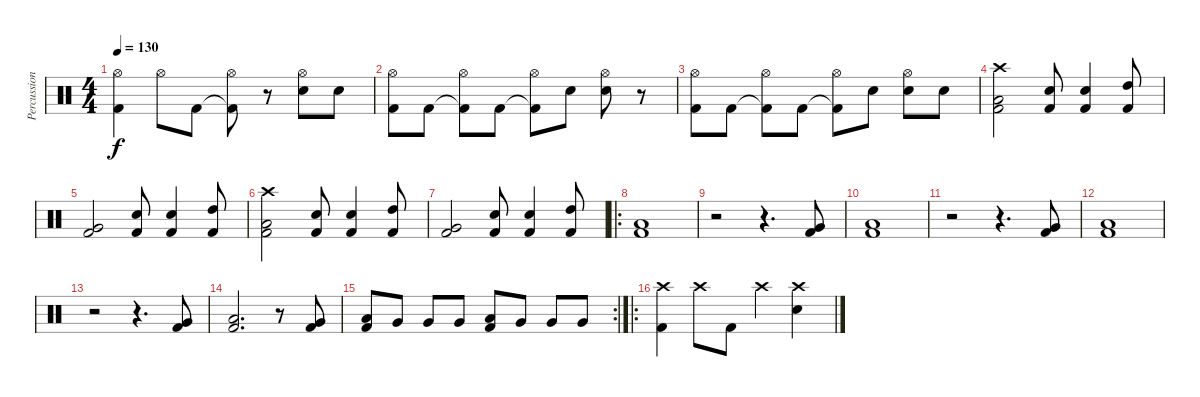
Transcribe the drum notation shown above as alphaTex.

\track ("Percussioni" "Percussion") {instrument percussion}
\staff {score}
\articulation defaults
\ts (4 4)
\tempo 130
\clef neutral
\ks c
("Kick (hit) 2" "Hi-Hat (open)").4{dy f} "Hi-Hat (open)".8 "Kick (hit) 2".8 ("Kick (hit) 2"{t} "Hi-Hat (open)").8 r.8 ("Snare (hit) 2" "Hi-Hat (open)").8 "Snare (hit) 2".8 |
("Kick (hit) 2" "Hi-Hat (open)").8 "Kick (hit) 2".8 ("Kick (hit) 2"{t} "Hi-Hat (open)").8 "Kick (hit) 2".8 ("Kick (hit) 2"{t} "Hi-Hat (open)").8 "Snare (hit) 2".8 ("Snare (hit) 2" "Hi-Hat (open)").8 r.8 |
("Kick (hit) 2" "Hi-Hat (open)").8 "Kick (hit) 2".8 ("Kick (hit) 2"{t} "Hi-Hat (open)").8 "Kick (hit) 2".8 ("Kick (hit) 2"{t} "Hi-Hat (open)").8 "Snare (hit) 2".8 ("Snare (hit) 2" "Hi-Hat (open)").8 "Snare (hit) 2".8 |
("Kick (hit) 2" "Low Tom (hit)" "Crash high (hit)").2 ("Snare (hit) 2" "Kick (hit) 2").8 ("Snare (hit) 2" "Kick (hit) 2").4 ("High Tom (hit)" "Kick (hit) 2").8 |
("Kick (hit) 2" "Very Low Tom (hit)").2 ("Snare (hit) 2" "Kick (hit) 2").8 ("Snare (hit) 2" "Kick (hit) 2").4 ("High Tom (hit)" "Kick (hit) 2").8 |
("Kick (hit) 2" "Low Tom (hit)" "Crash high (hit)").2 ("Snare (hit) 2" "Kick (hit) 2").8 ("Snare (hit) 2" "Kick (hit) 2").4 ("High Tom (hit)" "Kick (hit) 2").8 |
("Kick (hit) 2" "Very Low Tom (hit)").2 ("Snare (hit) 2" "Kick (hit) 2").8 ("Snare (hit) 2" "Kick (hit) 2").4 ("High Tom (hit)" "Kick (hit) 2").8 |
\ro
("Kick (hit) 2" "Low Tom (hit)").1 |
r.2 r.4{d} ("Kick (hit) 2" "Very Low Tom (hit)").8 |
("Kick (hit) 2" "Low Tom (hit)").1 |
r.2 r.4{d} ("Kick (hit) 2" "Very Low Tom (hit)").8 |
("Kick (hit) 2" "Low Tom (hit)").1 |
r.2 r.4{d} ("Kick (hit) 2" "Very Low Tom (hit)").8 |
("Kick (hit) 2" "Low Tom (hit)").2{d} r.8 ("Kick (hit) 2" "Very Low Tom (hit)").8 |
\rc 2
("Kick (hit) 2" "Low Tom (hit)").8 "Very Low Tom (hit)".8 "Very Low Tom (hit)".8 "Very Low Tom (hit)".8 ("Kick (hit) 2" "Low Tom (hit)").8 "Very Low Tom (hit)".8 "Very Low Tom (hit)".8 "Very Low Tom (hit)".8 |
\ro
("Kick (hit) 2" "Crash high (hit)").4 "Crash high (hit)".8 "Kick (hit) 2".8 "Crash high (hit)".4 ("Crash high (hit)" "Snare (hit) 2").4
